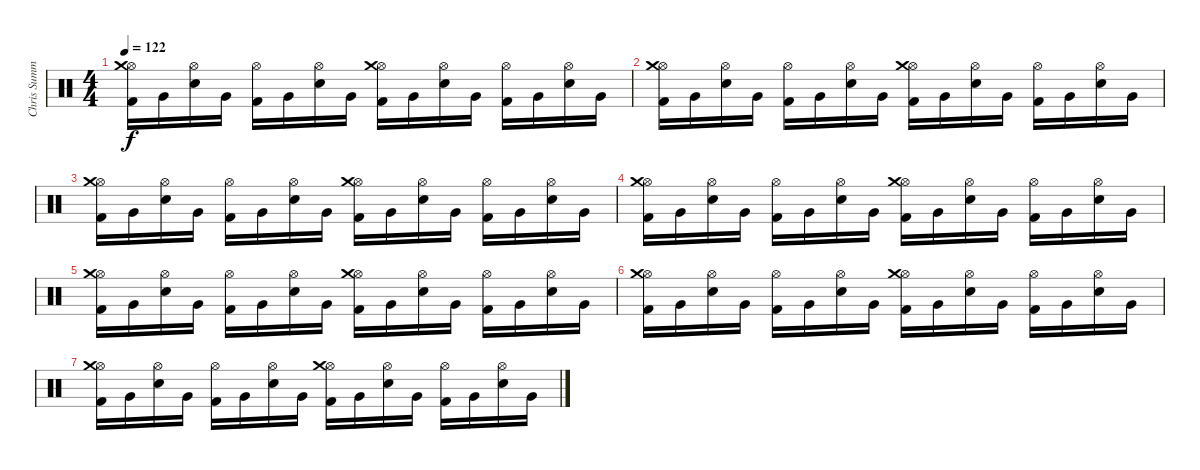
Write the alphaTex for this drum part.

\track ("Chris Summers" "Chris Summ") {instrument percussion}
\staff {score}
\articulation defaults
\ts (4 4)
\tempo 122
\clef neutral
\ks c
("Kick (hit) 2" "Hi-Hat (open)" "Crash medium (hit)").16{dy f} "Very Low Tom (hit)".16 ("Electric Snare (hit)" "Hi-Hat (open)").16 "Very Low Tom (hit)".16 ("Kick (hit) 2" "Hi-Hat (open)").16 "Very Low Tom (hit)".16 ("Electric Snare (hit)" "Hi-Hat (open)").16 "Very Low Tom (hit)".16 ("Kick (hit) 2" "Hi-Hat (open)" "Crash medium (hit)").16 "Very Low Tom (hit)".16 ("Electric Snare (hit)" "Hi-Hat (open)").16 "Very Low Tom (hit)".16 ("Kick (hit) 2" "Hi-Hat (open)").16 "Very Low Tom (hit)".16 ("Electric Snare (hit)" "Hi-Hat (open)").16 "Very Low Tom (hit)".16 |
("Kick (hit) 2" "Hi-Hat (open)" "Crash medium (hit)").16 "Very Low Tom (hit)".16 ("Electric Snare (hit)" "Hi-Hat (open)").16 "Very Low Tom (hit)".16 ("Kick (hit) 2" "Hi-Hat (open)").16 "Very Low Tom (hit)".16 ("Electric Snare (hit)" "Hi-Hat (open)").16 "Very Low Tom (hit)".16 ("Kick (hit) 2" "Hi-Hat (open)" "Crash medium (hit)").16 "Very Low Tom (hit)".16 ("Electric Snare (hit)" "Hi-Hat (open)").16 "Very Low Tom (hit)".16 ("Kick (hit) 2" "Hi-Hat (open)").16 "Very Low Tom (hit)".16 ("Electric Snare (hit)" "Hi-Hat (open)").16 "Very Low Tom (hit)".16 |
("Kick (hit) 2" "Hi-Hat (open)" "Crash medium (hit)").16 "Very Low Tom (hit)".16 ("Electric Snare (hit)" "Hi-Hat (open)").16 "Very Low Tom (hit)".16 ("Kick (hit) 2" "Hi-Hat (open)").16 "Very Low Tom (hit)".16 ("Electric Snare (hit)" "Hi-Hat (open)").16 "Very Low Tom (hit)".16 ("Kick (hit) 2" "Hi-Hat (open)" "Crash medium (hit)").16 "Very Low Tom (hit)".16 ("Electric Snare (hit)" "Hi-Hat (open)").16 "Very Low Tom (hit)".16 ("Kick (hit) 2" "Hi-Hat (open)").16 "Very Low Tom (hit)".16 ("Electric Snare (hit)" "Hi-Hat (open)").16 "Very Low Tom (hit)".16 |
("Kick (hit) 2" "Hi-Hat (open)" "Crash medium (hit)").16 "Very Low Tom (hit)".16 ("Electric Snare (hit)" "Hi-Hat (open)").16 "Very Low Tom (hit)".16 ("Kick (hit) 2" "Hi-Hat (open)").16 "Very Low Tom (hit)".16 ("Electric Snare (hit)" "Hi-Hat (open)").16 "Very Low Tom (hit)".16 ("Kick (hit) 2" "Hi-Hat (open)" "Crash medium (hit)").16 "Very Low Tom (hit)".16 ("Electric Snare (hit)" "Hi-Hat (open)").16 "Very Low Tom (hit)".16 ("Kick (hit) 2" "Hi-Hat (open)").16 "Very Low Tom (hit)".16 ("Electric Snare (hit)" "Hi-Hat (open)").16 "Very Low Tom (hit)".16 |
("Kick (hit) 2" "Hi-Hat (open)" "Crash medium (hit)").16 "Very Low Tom (hit)".16 ("Electric Snare (hit)" "Hi-Hat (open)").16 "Very Low Tom (hit)".16 ("Kick (hit) 2" "Hi-Hat (open)").16 "Very Low Tom (hit)".16 ("Electric Snare (hit)" "Hi-Hat (open)").16 "Very Low Tom (hit)".16 ("Kick (hit) 2" "Hi-Hat (open)" "Crash medium (hit)").16 "Very Low Tom (hit)".16 ("Electric Snare (hit)" "Hi-Hat (open)").16 "Very Low Tom (hit)".16 ("Kick (hit) 2" "Hi-Hat (open)").16 "Very Low Tom (hit)".16 ("Electric Snare (hit)" "Hi-Hat (open)").16 "Very Low Tom (hit)".16 |
("Kick (hit) 2" "Hi-Hat (open)" "Crash medium (hit)").16 "Very Low Tom (hit)".16 ("Electric Snare (hit)" "Hi-Hat (open)").16 "Very Low Tom (hit)".16 ("Kick (hit) 2" "Hi-Hat (open)").16 "Very Low Tom (hit)".16 ("Electric Snare (hit)" "Hi-Hat (open)").16 "Very Low Tom (hit)".16 ("Kick (hit) 2" "Hi-Hat (open)" "Crash medium (hit)").16 "Very Low Tom (hit)".16 ("Electric Snare (hit)" "Hi-Hat (open)").16 "Very Low Tom (hit)".16 ("Kick (hit) 2" "Hi-Hat (open)").16 "Very Low Tom (hit)".16 ("Electric Snare (hit)" "Hi-Hat (open)").16 "Very Low Tom (hit)".16 |
("Kick (hit) 2" "Hi-Hat (open)" "Crash medium (hit)").16 "Very Low Tom (hit)".16 ("Electric Snare (hit)" "Hi-Hat (open)").16 "Very Low Tom (hit)".16 ("Kick (hit) 2" "Hi-Hat (open)").16 "Very Low Tom (hit)".16 ("Electric Snare (hit)" "Hi-Hat (open)").16 "Very Low Tom (hit)".16 ("Kick (hit) 2" "Hi-Hat (open)" "Crash medium (hit)").16 "Very Low Tom (hit)".16 ("Electric Snare (hit)" "Hi-Hat (open)").16 "Very Low Tom (hit)".16 ("Kick (hit) 2" "Hi-Hat (open)").16 "Very Low Tom (hit)".16 ("Electric Snare (hit)" "Hi-Hat (open)").16 "Very Low Tom (hit)".16
